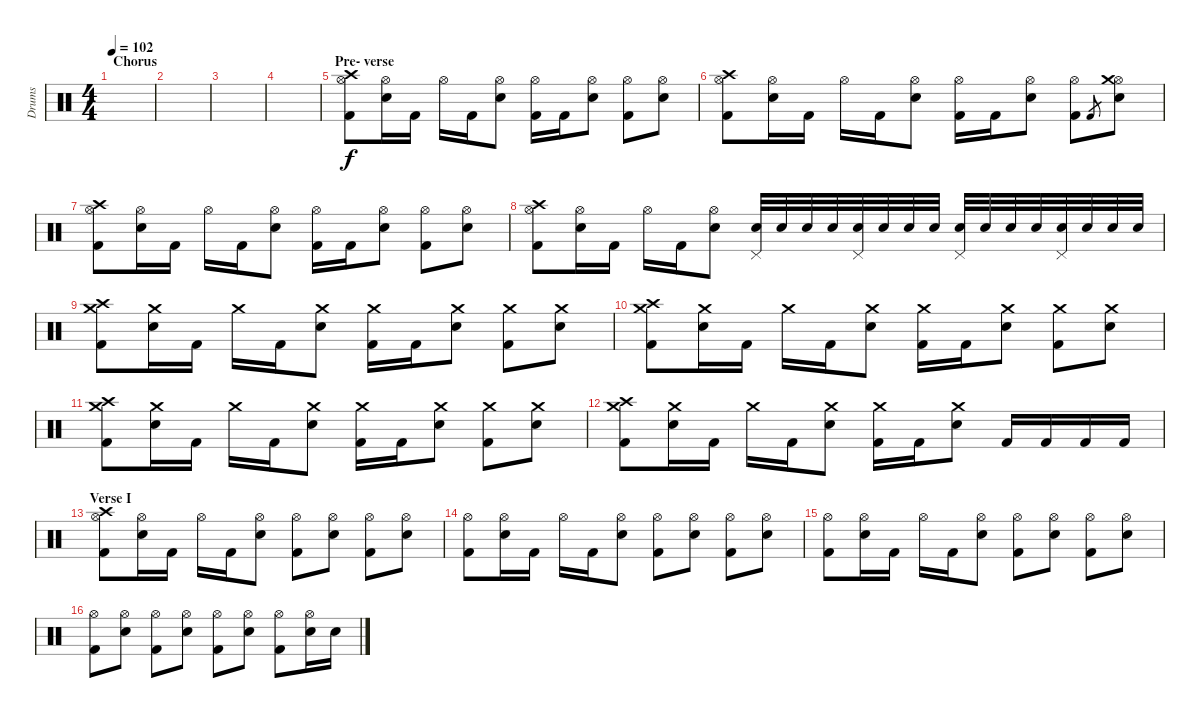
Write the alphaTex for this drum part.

\track ("Drums" "Drums") {instrument percussion}
\staff {score}
\articulation defaults
\ts (4 4)
\section ("" "Chorus")
\tempo 102
\clef neutral
\ks c
|
|
|
|
\section ("" "Pre- verse")
("Hi-Hat (open)" "Kick (hit) 2" "Crash high (hit)").8 ("Hi-Hat (open)" "Electric Snare (hit)").16 "Kick (hit) 2".16 "Hi-Hat (open)".16 "Kick (hit) 2".16 ("Hi-Hat (open)" "Electric Snare (hit)").8 ("Hi-Hat (open)" "Kick (hit) 2").16 "Kick (hit) 2".16 ("Hi-Hat (open)" "Electric Snare (hit)").8 ("Hi-Hat (open)" "Kick (hit) 2").8 ("Hi-Hat (open)" "Electric Snare (hit)").8 |
("Hi-Hat (open)" "Kick (hit) 2" "Crash high (hit)").8 ("Hi-Hat (open)" "Electric Snare (hit)").16 "Kick (hit) 2".16 "Hi-Hat (open)".16 "Kick (hit) 2".16 ("Hi-Hat (open)" "Electric Snare (hit)").8 ("Hi-Hat (open)" "Kick (hit) 2").16 "Kick (hit) 2".16 ("Hi-Hat (open)" "Electric Snare (hit)").8 ("Hi-Hat (open)" "Kick (hit) 2").8 "Kick (hit) 2".8{gr} ("Hi-Hat (open)" "Electric Snare (hit)" "Crash medium (hit)").8 |
("Hi-Hat (open)" "Kick (hit) 2" "Crash high (hit)").8 ("Hi-Hat (open)" "Electric Snare (hit)").16 "Kick (hit) 2".16 "Hi-Hat (open)".16 "Kick (hit) 2".16 ("Hi-Hat (open)" "Electric Snare (hit)").8 ("Hi-Hat (open)" "Kick (hit) 2").16 "Kick (hit) 2".16 ("Hi-Hat (open)" "Electric Snare (hit)").8 ("Hi-Hat (open)" "Kick (hit) 2").8 ("Hi-Hat (open)" "Electric Snare (hit)").8 |
("Hi-Hat (open)" "Kick (hit) 2" "Crash high (hit)").8 ("Hi-Hat (open)" "Electric Snare (hit)").16 "Kick (hit) 2".16 "Hi-Hat (open)".16 "Kick (hit) 2".16 ("Hi-Hat (open)" "Electric Snare (hit)").8 ("Pedal Hi-Hat (hit)" "Electric Snare (hit)").32 "Electric Snare (hit)".32 "Electric Snare (hit)".32 "Electric Snare (hit)".32 ("Pedal Hi-Hat (hit)" "Electric Snare (hit)").32 "Electric Snare (hit)".32 "Electric Snare (hit)".32 "Electric Snare (hit)".32 ("Pedal Hi-Hat (hit)" "Electric Snare (hit)").32 "Electric Snare (hit)".32 "Electric Snare (hit)".32 "Electric Snare (hit)".32 ("Pedal Hi-Hat (hit)" "Electric Snare (hit)").32 "Electric Snare (hit)".32 "Electric Snare (hit)".32 "Electric Snare (hit)".32 |
("Crash medium (hit)" "Kick (hit) 2" "Crash high (hit)").8 ("Crash medium (hit)" "Electric Snare (hit)").16 "Kick (hit) 2".16 "Crash medium (hit)".16 "Kick (hit) 2".16 ("Crash medium (hit)" "Electric Snare (hit)").8 ("Crash medium (hit)" "Kick (hit) 2").16 "Kick (hit) 2".16 ("Crash medium (hit)" "Electric Snare (hit)").8 ("Crash medium (hit)" "Kick (hit) 2").8 ("Crash medium (hit)" "Electric Snare (hit)").8 |
("Crash medium (hit)" "Kick (hit) 2" "Crash high (hit)").8 ("Crash medium (hit)" "Electric Snare (hit)").16 "Kick (hit) 2".16 "Crash medium (hit)".16 "Kick (hit) 2".16 ("Crash medium (hit)" "Electric Snare (hit)").8 ("Crash medium (hit)" "Kick (hit) 2").16 "Kick (hit) 2".16 ("Crash medium (hit)" "Electric Snare (hit)").8 ("Crash medium (hit)" "Kick (hit) 2").8 ("Crash medium (hit)" "Electric Snare (hit)").8 |
("Crash medium (hit)" "Kick (hit) 2" "Crash high (hit)").8 ("Crash medium (hit)" "Electric Snare (hit)").16 "Kick (hit) 2".16 "Crash medium (hit)".16 "Kick (hit) 2".16 ("Crash medium (hit)" "Electric Snare (hit)").8 ("Crash medium (hit)" "Kick (hit) 2").16 "Kick (hit) 2".16 ("Crash medium (hit)" "Electric Snare (hit)").8 ("Crash medium (hit)" "Kick (hit) 2").8 ("Crash medium (hit)" "Electric Snare (hit)").8 |
("Crash medium (hit)" "Kick (hit) 2" "Crash high (hit)").8 ("Crash medium (hit)" "Electric Snare (hit)").16 "Kick (hit) 2".16 "Crash medium (hit)".16 "Kick (hit) 2".16 ("Crash medium (hit)" "Electric Snare (hit)").8 ("Crash medium (hit)" "Kick (hit) 2").16 "Kick (hit) 2".16 ("Crash medium (hit)" "Electric Snare (hit)").8 "Kick (hit) 2".16 "Kick (hit) 2".16 "Kick (hit) 2".16 "Kick (hit) 2".16 |
\section ("" "Verse I")
("Hi-Hat (open)" "Kick (hit) 2" "Crash high (hit)").8 ("Hi-Hat (open)" "Electric Snare (hit)").16 "Kick (hit) 2".16 "Hi-Hat (open)".16 "Kick (hit) 2".16 ("Hi-Hat (open)" "Electric Snare (hit)").8 ("Hi-Hat (open)" "Kick (hit) 2").8 ("Hi-Hat (open)" "Electric Snare (hit)").8 ("Hi-Hat (open)" "Kick (hit) 2").8 ("Hi-Hat (open)" "Electric Snare (hit)").8 |
("Hi-Hat (open)" "Kick (hit) 2").8 ("Hi-Hat (open)" "Electric Snare (hit)").16 "Kick (hit) 2".16 "Hi-Hat (open)".16 "Kick (hit) 2".16 ("Hi-Hat (open)" "Electric Snare (hit)").8 ("Hi-Hat (open)" "Kick (hit) 2").8 ("Hi-Hat (open)" "Electric Snare (hit)").8 ("Hi-Hat (open)" "Kick (hit) 2").8 ("Hi-Hat (open)" "Electric Snare (hit)").8 |
("Hi-Hat (open)" "Kick (hit) 2").8 ("Hi-Hat (open)" "Electric Snare (hit)").16 "Kick (hit) 2".16 "Hi-Hat (open)".16 "Kick (hit) 2".16 ("Hi-Hat (open)" "Electric Snare (hit)").8 ("Hi-Hat (open)" "Kick (hit) 2").8 ("Hi-Hat (open)" "Electric Snare (hit)").8 ("Hi-Hat (open)" "Kick (hit) 2").8 ("Hi-Hat (open)" "Electric Snare (hit)").8 |
("Hi-Hat (open)" "Kick (hit) 2").8 ("Hi-Hat (open)" "Electric Snare (hit)").8 ("Hi-Hat (open)" "Kick (hit) 2").8 ("Hi-Hat (open)" "Electric Snare (hit)").8 ("Hi-Hat (open)" "Kick (hit) 2").8 ("Hi-Hat (open)" "Electric Snare (hit)").8 ("Hi-Hat (open)" "Kick (hit) 2").8 ("Hi-Hat (open)" "Electric Snare (hit)").16 "Electric Snare (hit)".16
